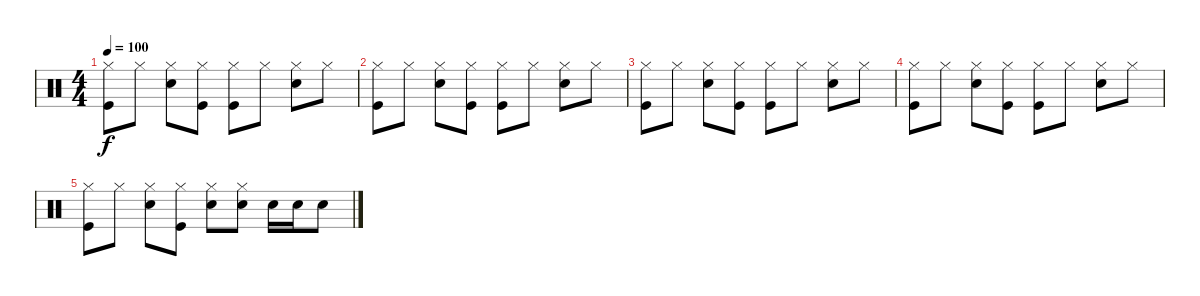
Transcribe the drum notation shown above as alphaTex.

\track "" {instrument percussion}
\staff {score}
\articulation defaults
\ts (4 4)
\tempo 100
\clef neutral
\ks c
("Hi-Hat (closed)" "Kick (hit)").8{dy f} "Hi-Hat (closed)".8 ("Hi-Hat (closed)" "Electric Snare (hit)").8 ("Hi-Hat (closed)" "Kick (hit)").8 ("Hi-Hat (closed)" "Kick (hit)").8 "Hi-Hat (closed)".8 ("Hi-Hat (closed)" "Electric Snare (hit)").8 "Hi-Hat (closed)".8 |
("Hi-Hat (closed)" "Kick (hit)").8 "Hi-Hat (closed)".8 ("Hi-Hat (closed)" "Electric Snare (hit)").8 ("Hi-Hat (closed)" "Kick (hit)").8 ("Hi-Hat (closed)" "Kick (hit)").8 "Hi-Hat (closed)".8 ("Hi-Hat (closed)" "Electric Snare (hit)").8 "Hi-Hat (closed)".8 |
("Hi-Hat (closed)" "Kick (hit)").8 "Hi-Hat (closed)".8 ("Hi-Hat (closed)" "Electric Snare (hit)").8 ("Hi-Hat (closed)" "Kick (hit)").8 ("Hi-Hat (closed)" "Kick (hit)").8 "Hi-Hat (closed)".8 ("Hi-Hat (closed)" "Electric Snare (hit)").8 "Hi-Hat (closed)".8 |
("Hi-Hat (closed)" "Kick (hit)").8 "Hi-Hat (closed)".8 ("Hi-Hat (closed)" "Electric Snare (hit)").8 ("Hi-Hat (closed)" "Kick (hit)").8 ("Hi-Hat (closed)" "Kick (hit)").8 "Hi-Hat (closed)".8 ("Hi-Hat (closed)" "Electric Snare (hit)").8 "Hi-Hat (closed)".8 |
("Hi-Hat (closed)" "Kick (hit)").8 "Hi-Hat (closed)".8 ("Hi-Hat (closed)" "Electric Snare (hit)").8 ("Hi-Hat (closed)" "Kick (hit)").8 ("Hi-Hat (closed)" "Electric Snare (hit)").8 ("Hi-Hat (closed)" "Electric Snare (hit)").8 "Electric Snare (hit)".16 "Electric Snare (hit)".16 "Electric Snare (hit)".8
